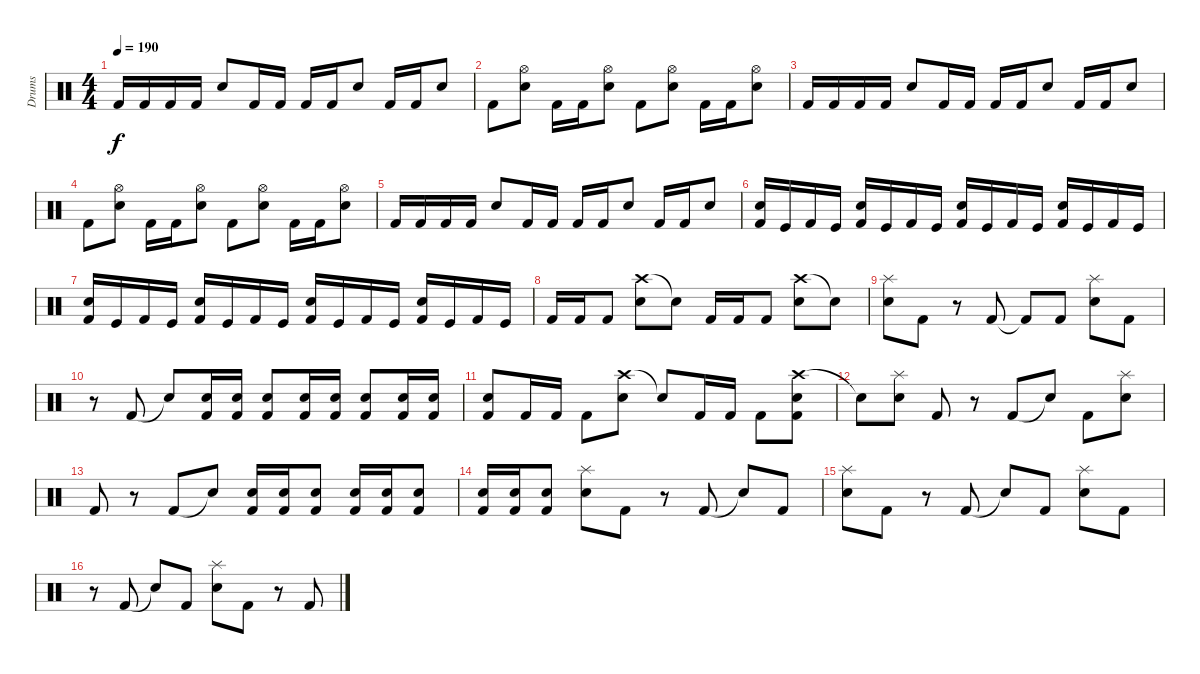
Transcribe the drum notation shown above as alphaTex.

\track ("Drums" "Drums") {instrument percussion}
\staff {score}
\articulation defaults
\ts (4 4)
\tempo 190
\clef neutral
\ks c "Kick (hit) 2".16{dy f} "Kick (hit) 2".16 "Kick (hit) 2".16 "Kick (hit) 2".16 "Snare (hit) 2".8 "Kick (hit) 2".16 "Kick (hit) 2".16 "Kick (hit) 2".16 "Kick (hit) 2".16 "Snare (hit) 2".8 "Kick (hit) 2".16 "Kick (hit) 2".16 "Snare (hit) 2".8
|
"Kick (hit) 2".8 ("Hi-Hat (open)" "Snare (hit) 2").8 "Kick (hit) 2".16 "Kick (hit) 2".16 ("Hi-Hat (open)" "Snare (hit) 2").8 "Kick (hit) 2".8 ("Hi-Hat (open)" "Snare (hit) 2").8 "Kick (hit) 2".16 "Kick (hit) 2".16 ("Hi-Hat (open)" "Snare (hit) 2").8 |
"Kick (hit) 2".16 "Kick (hit) 2".16 "Kick (hit) 2".16 "Kick (hit) 2".16 "Snare (hit) 2".8 "Kick (hit) 2".16 "Kick (hit) 2".16 "Kick (hit) 2".16 "Kick (hit) 2".16 "Snare (hit) 2".8 "Kick (hit) 2".16 "Kick (hit) 2".16 "Snare (hit) 2".8 |
"Kick (hit) 2".8 ("Hi-Hat (open)" "Snare (hit) 2").8 "Kick (hit) 2".16 "Kick (hit) 2".16 ("Hi-Hat (open)" "Snare (hit) 2").8 "Kick (hit) 2".8 ("Hi-Hat (open)" "Snare (hit) 2").8 "Kick (hit) 2".16 "Kick (hit) 2".16 ("Hi-Hat (open)" "Snare (hit) 2").8 |
"Kick (hit) 2".16 "Kick (hit) 2".16 "Kick (hit) 2".16 "Kick (hit) 2".16 "Snare (hit) 2".8 "Kick (hit) 2".16 "Kick (hit) 2".16 "Kick (hit) 2".16 "Kick (hit) 2".16 "Snare (hit) 2".8 "Kick (hit) 2".16 "Kick (hit) 2".16 "Snare (hit) 2".8 |
("Snare (hit) 2" "Kick (hit) 2").16 "Kick (hit)".16 "Kick (hit) 2".16 "Kick (hit)".16 ("Snare (hit) 2" "Kick (hit) 2").16 "Kick (hit)".16 "Kick (hit) 2".16 "Kick (hit)".16 ("Snare (hit) 2" "Kick (hit) 2").16 "Kick (hit)".16 "Kick (hit) 2".16 "Kick (hit)".16 ("Snare (hit) 2" "Kick (hit) 2").16 "Kick (hit)".16 "Kick (hit) 2".16 "Kick (hit)".16 |
("Snare (hit) 2" "Kick (hit) 2").16 "Kick (hit)".16 "Kick (hit) 2".16 "Kick (hit)".16 ("Snare (hit) 2" "Kick (hit) 2").16 "Kick (hit)".16 "Kick (hit) 2".16 "Kick (hit)".16 ("Snare (hit) 2" "Kick (hit) 2").16 "Kick (hit)".16 "Kick (hit) 2".16 "Kick (hit)".16 ("Snare (hit) 2" "Kick (hit) 2").16 "Kick (hit)".16 "Kick (hit) 2".16 "Kick (hit)".16 |
"Kick (hit) 2".16 "Kick (hit) 2".16 "Kick (hit) 2".8 ("Crash high (hit)" "Snare (hit) 2").8 "Snare (hit)"{t}.8 "Kick (hit) 2".16 "Kick (hit) 2".16 "Kick (hit) 2".8 ("Crash high (hit)" "Snare (hit) 2").8 "Snare (hit)"{t}.8 |
("Splash (hit)" "Snare (hit) 2").8 "Kick (hit) 2".8 r.8 "Kick (hit) 2".8 "Kick (hit) 2"{t}.8 "Kick (hit) 2".8 ("Splash (hit)" "Snare (hit) 2").8 "Kick (hit) 2".8 |
r.8 "Kick (hit) 2".8 "Snare (hit)"{t}.8 ("Snare (hit) 2" "Kick (hit) 2").16 ("Snare (hit) 2" "Kick (hit) 2").16 ("Snare (hit) 2" "Kick (hit) 2").8 ("Snare (hit) 2" "Kick (hit) 2").16 ("Snare (hit) 2" "Kick (hit) 2").16 ("Snare (hit) 2" "Kick (hit) 2").8 ("Snare (hit) 2" "Kick (hit) 2").16 ("Snare (hit) 2" "Kick (hit) 2").16 |
("Snare (hit) 2" "Kick (hit) 2").8 "Kick (hit) 2".16 "Kick (hit) 2".16 "Kick (hit) 2".8 ("Crash high (hit)" "Snare (hit) 2").8 "Snare (hit)"{t}.8 "Kick (hit) 2".16 "Kick (hit) 2".16 "Kick (hit) 2".8 ("Crash high (hit)" "Snare (hit) 2" "Kick (hit) 2").8 |
"Snare (hit)"{t}.8 ("Splash (hit)" "Snare (hit) 2").8 "Kick (hit) 2".8 r.8 "Kick (hit) 2".8 "Snare (hit)"{t}.8 "Kick (hit) 2".8 ("Splash (hit)" "Snare (hit) 2").8 |
"Kick (hit) 2".8 r.8 "Kick (hit) 2".8 "Snare (hit)"{t}.8 ("Snare (hit) 2" "Kick (hit) 2").16 ("Snare (hit) 2" "Kick (hit) 2").16 ("Snare (hit) 2" "Kick (hit) 2").8 ("Snare (hit) 2" "Kick (hit) 2").16 ("Snare (hit) 2" "Kick (hit) 2").16 ("Snare (hit) 2" "Kick (hit) 2").8 |
("Snare (hit) 2" "Kick (hit) 2").16 ("Snare (hit) 2" "Kick (hit) 2").16 ("Snare (hit) 2" "Kick (hit) 2").8 ("Splash (hit)" "Snare (hit) 2").8 "Kick (hit) 2".8 r.8 "Kick (hit) 2".8 "Snare (hit)"{t}.8 "Kick (hit) 2".8 |
("Splash (hit)" "Snare (hit) 2").8 "Kick (hit) 2".8 r.8 "Kick (hit) 2".8 "Snare (hit)"{t}.8 "Kick (hit) 2".8 ("Splash (hit)" "Snare (hit) 2").8 "Kick (hit) 2".8 |
r.8 "Kick (hit) 2".8 "Snare (hit)"{t}.8 "Kick (hit) 2".8 ("Splash (hit)" "Snare (hit) 2").8 "Kick (hit) 2".8 r.8 "Kick (hit) 2".8
